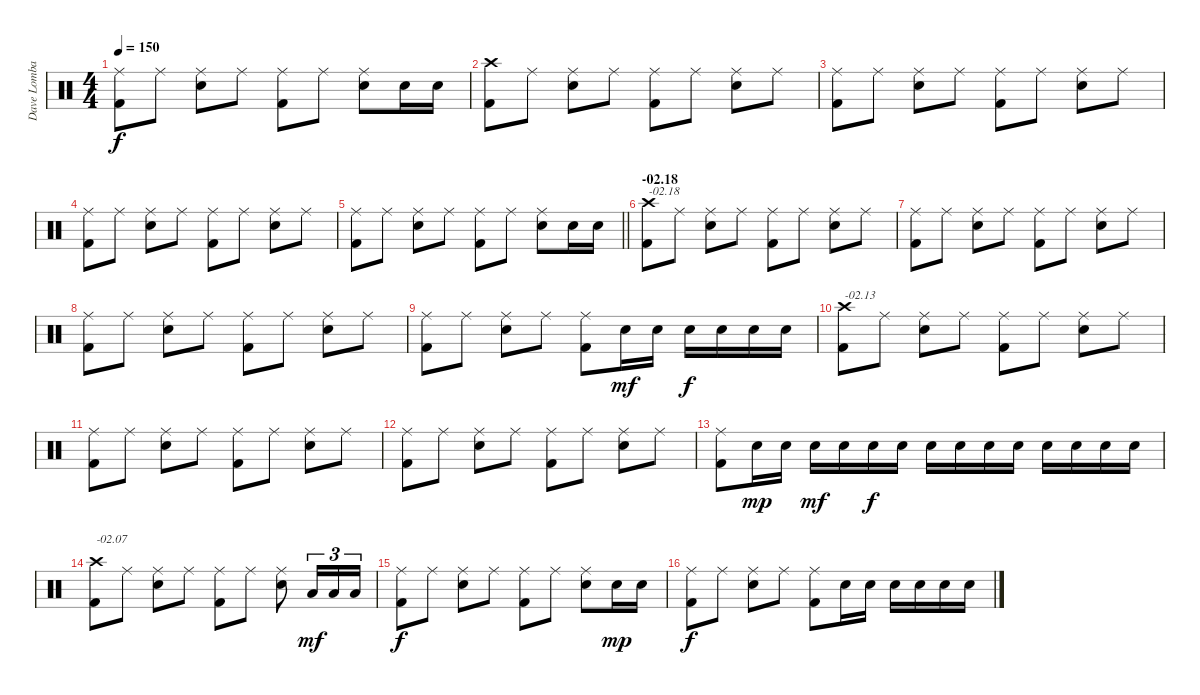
\track ("Dave Lombardo (Drums)" "Dave Lomba") {instrument percussion}
\staff {score}
\articulation defaults
\ts (4 4)
\tempo 150
\clef neutral
\ks c
("Ride (middle)" "Kick (hit) 2").8{dy f} "Ride (middle)".8 ("Ride (middle)" "Electric Snare (hit)").8 "Ride (middle)".8 ("Ride (middle)" "Kick (hit) 2").8 "Ride (middle)".8 ("Ride (middle)" "Electric Snare (hit)").8 "Electric Snare (hit)".16 "Electric Snare (hit)".16 |
("Crash high (hit)" "Kick (hit) 2").8 "Ride (middle)".8 ("Ride (middle)" "Electric Snare (hit)").8 "Ride (middle)".8 ("Ride (middle)" "Kick (hit) 2").8 "Ride (middle)".8 ("Ride (middle)" "Electric Snare (hit)").8 "Ride (middle)".8 |
("Ride (middle)" "Kick (hit) 2").8 "Ride (middle)".8 ("Ride (middle)" "Electric Snare (hit)").8 "Ride (middle)".8 ("Ride (middle)" "Kick (hit) 2").8 "Ride (middle)".8 ("Ride (middle)" "Electric Snare (hit)").8 "Ride (middle)".8 |
("Ride (middle)" "Kick (hit) 2").8 "Ride (middle)".8 ("Ride (middle)" "Electric Snare (hit)").8 "Ride (middle)".8 ("Ride (middle)" "Kick (hit) 2").8 "Ride (middle)".8 ("Ride (middle)" "Electric Snare (hit)").8 "Ride (middle)".8 |
\barLineRight lightlight
("Ride (middle)" "Kick (hit) 2").8 "Ride (middle)".8 ("Ride (middle)" "Electric Snare (hit)").8 "Ride (middle)".8 ("Ride (middle)" "Kick (hit) 2").8 "Ride (middle)".8 ("Ride (middle)" "Electric Snare (hit)").8 "Electric Snare (hit)".16 "Electric Snare (hit)".16 |
\section ("" "-02.18")
("Crash high (hit)" "Kick (hit) 2").8{txt "-02.18"} "Ride (middle)".8 ("Ride (middle)" "Electric Snare (hit)").8 "Ride (middle)".8 ("Ride (middle)" "Kick (hit) 2").8 "Ride (middle)".8 ("Ride (middle)" "Electric Snare (hit)").8 "Ride (middle)".8 |
("Ride (middle)" "Kick (hit) 2").8 "Ride (middle)".8 ("Ride (middle)" "Electric Snare (hit)").8 "Ride (middle)".8 ("Ride (middle)" "Kick (hit) 2").8 "Ride (middle)".8 ("Ride (middle)" "Electric Snare (hit)").8 "Ride (middle)".8 |
("Ride (middle)" "Kick (hit) 2").8 "Ride (middle)".8 ("Ride (middle)" "Electric Snare (hit)").8 "Ride (middle)".8 ("Ride (middle)" "Kick (hit) 2").8 "Ride (middle)".8 ("Ride (middle)" "Electric Snare (hit)").8 "Ride (middle)".8 |
("Ride (middle)" "Kick (hit) 2").8 "Ride (middle)".8 ("Ride (middle)" "Electric Snare (hit)").8 "Ride (middle)".8 ("Ride (middle)" "Kick (hit) 2").8 "Electric Snare (hit)".16{dy mf} "Electric Snare (hit)".16 "Electric Snare (hit)".16{dy f} "Electric Snare (hit)".16 "Electric Snare (hit)".16 "Electric Snare (hit)".16 |
("Crash high (hit)" "Kick (hit) 2").8{txt "-02.13"} "Ride (middle)".8 ("Ride (middle)" "Electric Snare (hit)").8 "Ride (middle)".8 ("Ride (middle)" "Kick (hit) 2").8 "Ride (middle)".8 ("Ride (middle)" "Electric Snare (hit)").8 "Ride (middle)".8 |
("Ride (middle)" "Kick (hit) 2").8 "Ride (middle)".8 ("Ride (middle)" "Electric Snare (hit)").8 "Ride (middle)".8 ("Ride (middle)" "Kick (hit) 2").8 "Ride (middle)".8 ("Ride (middle)" "Electric Snare (hit)").8 "Ride (middle)".8 |
("Ride (middle)" "Kick (hit) 2").8 "Ride (middle)".8 ("Ride (middle)" "Electric Snare (hit)").8 "Ride (middle)".8 ("Ride (middle)" "Kick (hit) 2").8 "Ride (middle)".8 ("Ride (middle)" "Electric Snare (hit)").8 "Ride (middle)".8 |
("Ride (middle)" "Kick (hit) 2").8 "Electric Snare (hit)".16{dy mp} "Electric Snare (hit)".16 "Electric Snare (hit)".16{dy mf} "Electric Snare (hit)".16 "Electric Snare (hit)".16{dy f} "Electric Snare (hit)".16 "Electric Snare (hit)".16 "Electric Snare (hit)".16 "Electric Snare (hit)".16 "Electric Snare (hit)".16 "Electric Snare (hit)".16 "Electric Snare (hit)".16 "Electric Snare (hit)".16 "Electric Snare (hit)".16 |
("Crash high (hit)" "Kick (hit) 2").8{txt "-02.07"} "Ride (middle)".8 ("Ride (middle)" "Electric Snare (hit)").8 "Ride (middle)".8 ("Ride (middle)" "Kick (hit) 2").8 "Ride (middle)".8 ("Ride (middle)" "Electric Snare (hit)").8 "Low Tom (hit)".16{tu (3 2) dy mf} "Low Tom (hit)".16{tu (3 2)} "Low Tom (hit)".16{tu (3 2)} |
("Ride (middle)" "Kick (hit) 2").8{dy f} "Ride (middle)".8 ("Ride (middle)" "Electric Snare (hit)").8 "Ride (middle)".8 ("Ride (middle)" "Kick (hit) 2").8 "Ride (middle)".8 ("Ride (middle)" "Electric Snare (hit)").8 "Electric Snare (hit)".16{dy mp} "Electric Snare (hit)".16 |
("Ride (middle)" "Kick (hit) 2").8{dy f} "Ride (middle)".8 ("Ride (middle)" "Electric Snare (hit)").8 "Ride (middle)".8 ("Ride (middle)" "Kick (hit) 2").8 "Electric Snare (hit)".16 "Electric Snare (hit)".16 "Electric Snare (hit)".16 "Electric Snare (hit)".16 "Electric Snare (hit)".16 "Electric Snare (hit)".16
